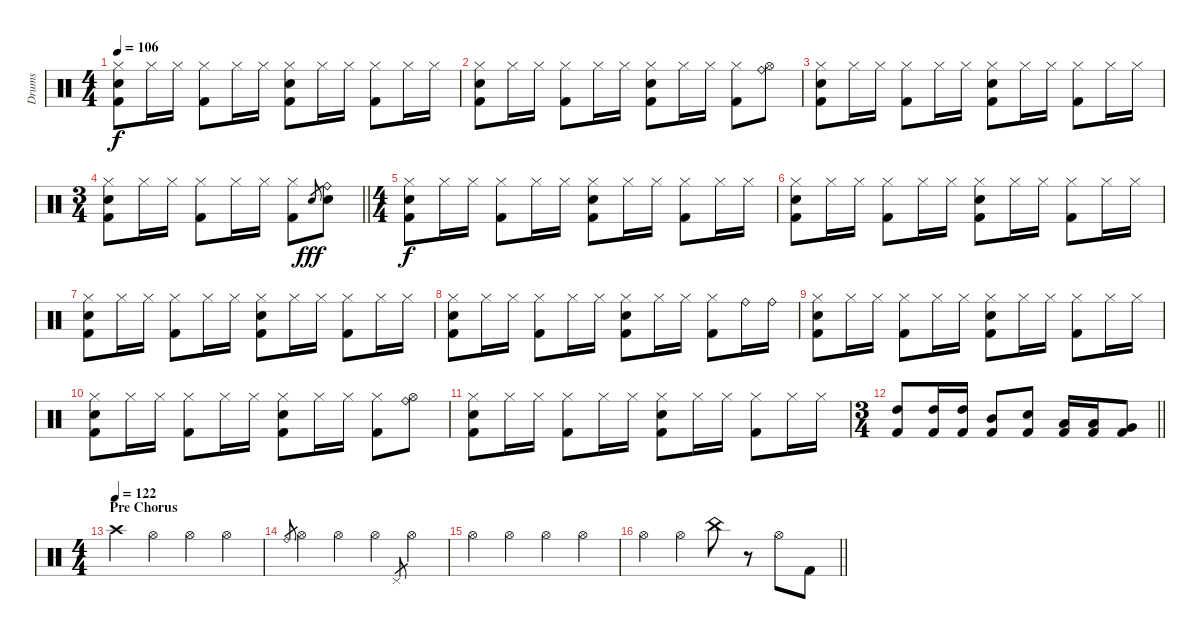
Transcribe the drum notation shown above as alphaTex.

\track ("Drums" "Drums") {instrument percussion}
\staff {score}
\articulation defaults
\ts (4 4)
\tempo 106
\clef neutral
\ks c
("Hi-Hat (closed)" "Snare (hit) 2" "Kick (hit) 2").8{dy f} "Hi-Hat (closed)".16 "Hi-Hat (closed)".16 ("Hi-Hat (closed)" "Kick (hit) 2").8 "Hi-Hat (closed)".16 "Hi-Hat (closed)".16 ("Hi-Hat (closed)" "Snare (hit) 2" "Kick (hit) 2").8 "Hi-Hat (closed)".16 "Hi-Hat (closed)".16 ("Hi-Hat (closed)" "Kick (hit) 2").8 "Hi-Hat (closed)".16 "Hi-Hat (closed)".16 |
("Hi-Hat (closed)" "Snare (hit) 2" "Kick (hit) 2").8 "Hi-Hat (closed)".16 "Hi-Hat (closed)".16 ("Hi-Hat (closed)" "Kick (hit) 2").8 "Hi-Hat (closed)".16 "Hi-Hat (closed)".16 ("Hi-Hat (closed)" "Snare (hit) 2" "Kick (hit) 2").8 "Hi-Hat (closed)".16 "Hi-Hat (closed)".16 ("Hi-Hat (closed)" "Kick (hit) 2").8 ("Ride (bell)" "Hi-Hat (open)").8 |
("Hi-Hat (closed)" "Snare (hit) 2" "Kick (hit) 2").8 "Hi-Hat (closed)".16 "Hi-Hat (closed)".16 ("Hi-Hat (closed)" "Kick (hit) 2").8 "Hi-Hat (closed)".16 "Hi-Hat (closed)".16 ("Hi-Hat (closed)" "Snare (hit) 2" "Kick (hit) 2").8 "Hi-Hat (closed)".16 "Hi-Hat (closed)".16 ("Hi-Hat (closed)" "Kick (hit) 2").8 "Hi-Hat (closed)".16 "Hi-Hat (closed)".16 |
\ts (3 4)
\barLineRight lightlight
("Hi-Hat (closed)" "Snare (hit) 2" "Kick (hit) 2").8 "Hi-Hat (closed)".16 "Hi-Hat (closed)".16 ("Hi-Hat (closed)" "Kick (hit) 2").8 "Hi-Hat (closed)".16 "Hi-Hat (closed)".16 ("Hi-Hat (closed)" "Kick (hit) 2").8 "Snare (hit) 2".8{gr dy fff} ("Ride (bell)" "Snare (hit) 2").8 |
\ts (4 4)
("Hi-Hat (closed)" "Snare (hit) 2" "Kick (hit) 2").8{dy f} "Hi-Hat (closed)".16 "Hi-Hat (closed)".16 ("Hi-Hat (closed)" "Kick (hit) 2").8 "Hi-Hat (closed)".16 "Hi-Hat (closed)".16 ("Hi-Hat (closed)" "Snare (hit) 2" "Kick (hit) 2").8 "Hi-Hat (closed)".16 "Hi-Hat (closed)".16 ("Hi-Hat (closed)" "Kick (hit) 2").8 "Hi-Hat (closed)".16 "Hi-Hat (closed)".16 |
("Hi-Hat (closed)" "Snare (hit) 2" "Kick (hit) 2").8 "Hi-Hat (closed)".16 "Hi-Hat (closed)".16 ("Hi-Hat (closed)" "Kick (hit) 2").8 "Hi-Hat (closed)".16 "Hi-Hat (closed)".16 ("Hi-Hat (closed)" "Snare (hit) 2" "Kick (hit) 2").8 "Hi-Hat (closed)".16 "Hi-Hat (closed)".16 ("Hi-Hat (closed)" "Kick (hit) 2").8 "Hi-Hat (closed)".16 "Hi-Hat (closed)".16 |
("Hi-Hat (closed)" "Snare (hit) 2" "Kick (hit) 2").8 "Hi-Hat (closed)".16 "Hi-Hat (closed)".16 ("Hi-Hat (closed)" "Kick (hit) 2").8 "Hi-Hat (closed)".16 "Hi-Hat (closed)".16 ("Hi-Hat (closed)" "Snare (hit) 2" "Kick (hit) 2").8 "Hi-Hat (closed)".16 "Hi-Hat (closed)".16 ("Hi-Hat (closed)" "Kick (hit) 2").8 "Hi-Hat (closed)".16 "Hi-Hat (closed)".16 |
("Hi-Hat (closed)" "Snare (hit) 2" "Kick (hit) 2").8 "Hi-Hat (closed)".16 "Hi-Hat (closed)".16 ("Hi-Hat (closed)" "Kick (hit) 2").8 "Hi-Hat (closed)".16 "Hi-Hat (closed)".16 ("Hi-Hat (closed)" "Snare (hit) 2" "Kick (hit) 2").8 "Hi-Hat (closed)".16 "Hi-Hat (closed)".16 ("Hi-Hat (closed)" "Kick (hit) 2").8 "Ride (bell)".16 "Ride (bell)".16 |
("Hi-Hat (closed)" "Snare (hit) 2" "Kick (hit) 2").8 "Hi-Hat (closed)".16 "Hi-Hat (closed)".16 ("Hi-Hat (closed)" "Kick (hit) 2").8 "Hi-Hat (closed)".16 "Hi-Hat (closed)".16 ("Hi-Hat (closed)" "Snare (hit) 2" "Kick (hit) 2").8 "Hi-Hat (closed)".16 "Hi-Hat (closed)".16 ("Hi-Hat (closed)" "Kick (hit) 2").8 "Hi-Hat (closed)".16 "Hi-Hat (closed)".16 |
("Hi-Hat (closed)" "Snare (hit) 2" "Kick (hit) 2").8 "Hi-Hat (closed)".16 "Hi-Hat (closed)".16 ("Hi-Hat (closed)" "Kick (hit) 2").8 "Hi-Hat (closed)".16 "Hi-Hat (closed)".16 ("Hi-Hat (closed)" "Snare (hit) 2" "Kick (hit) 2").8 "Hi-Hat (closed)".16 "Hi-Hat (closed)".16 ("Hi-Hat (closed)" "Kick (hit) 2").8 ("Ride (bell)" "Hi-Hat (open)").8 |
("Hi-Hat (closed)" "Snare (hit) 2" "Kick (hit) 2").8 "Hi-Hat (closed)".16 "Hi-Hat (closed)".16 ("Hi-Hat (closed)" "Kick (hit) 2").8 "Hi-Hat (closed)".16 "Hi-Hat (closed)".16 ("Hi-Hat (closed)" "Snare (hit) 2" "Kick (hit) 2").8 "Hi-Hat (closed)".16 "Hi-Hat (closed)".16 ("Hi-Hat (closed)" "Kick (hit) 2").8 "Hi-Hat (closed)".16 "Hi-Hat (closed)".16 |
\ts (3 4)
\barLineRight lightlight
("Kick (hit) 2" "High Tom (hit)").8 ("Kick (hit) 2" "High Tom (hit)").16 ("Kick (hit) 2" "High Tom (hit)").16 ("Kick (hit) 2" "Mid Tom (hit)").8 ("Kick (hit) 2" "Snare (hit) 2").8 ("Kick (hit) 2" "Low Tom (hit)").16 ("Kick (hit) 2" "Low Tom (hit)").16 ("Kick (hit) 2" "Very Low Tom (hit)").8 |
\ts (4 4)
\section ("" "Pre Chorus")
\tempo (122)
"Crash high (hit)".4 "Hi-Hat (open)".4 "Hi-Hat (open)".4 "Hi-Hat (open)".4 |
"Ride (bell)".8{gr} "Hi-Hat (open)".4 "Hi-Hat (open)".4 "Hi-Hat (open)".4 "Pedal Hi-Hat (hit)".8{gr} "Hi-Hat (open)".4 |
"Hi-Hat (open)".4 "Hi-Hat (open)".4 "Hi-Hat (open)".4 "Hi-Hat (open)".4 |
\barLineRight lightlight "Hi-Hat (open)".4 "Hi-Hat (open)".4 "China (hit)".8
r.8 "Hi-Hat (open)".8 "Kick (hit) 2".8
